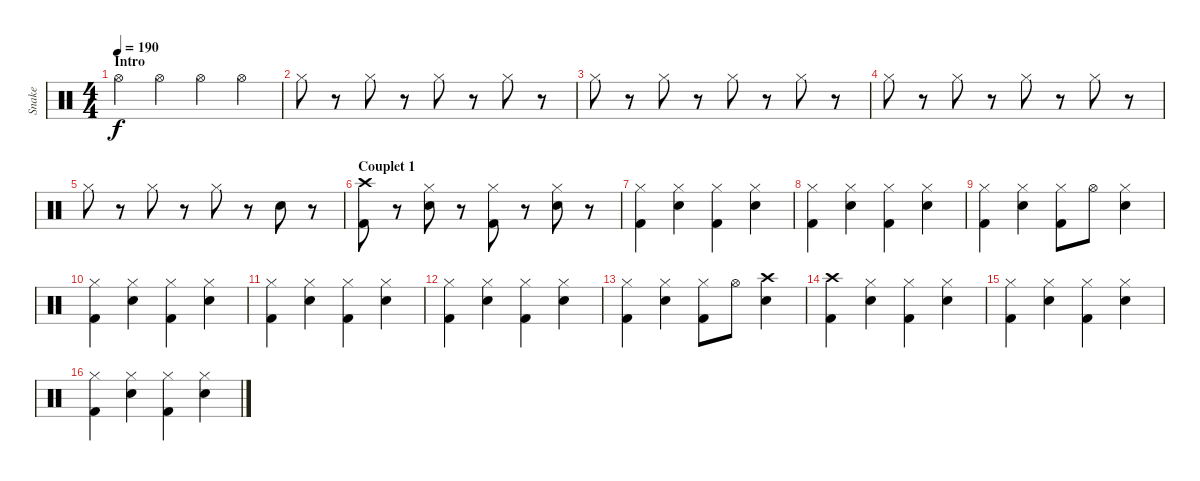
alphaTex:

\track ("Snake" "Snake") {instrument percussion}
\staff {score}
\articulation defaults
\ts (4 4)
\section ("" "Intro")
\tempo 190
\clef neutral
\ks c "Hi-Hat (open)".4{dy f} "Hi-Hat (open)".4 "Hi-Hat (open)".4 "Hi-Hat (open)".4
|
"Hi-Hat (closed)".8 r.8 "Hi-Hat (closed)".8 r.8 "Hi-Hat (closed)".8 r.8 "Hi-Hat (closed)".8 r.8 |
"Hi-Hat (closed)".8 r.8 "Hi-Hat (closed)".8 r.8 "Hi-Hat (closed)".8 r.8 "Hi-Hat (closed)".8 r.8 |
"Hi-Hat (closed)".8 r.8 "Hi-Hat (closed)".8 r.8 "Hi-Hat (closed)".8 r.8 "Hi-Hat (closed)".8 r.8 |
"Hi-Hat (closed)".8 r.8 "Hi-Hat (closed)".8 r.8 "Hi-Hat (closed)".8 r.8 "Snare (hit) 2".8 r.8 |
\section ("" "Couplet 1")
("Crash high (hit)" "Kick (hit) 2").8 r.8 ("Hi-Hat (closed)" "Snare (hit) 2").8 r.8 ("Hi-Hat (closed)" "Kick (hit) 2").8 r.8 ("Hi-Hat (closed)" "Snare (hit) 2").8 r.8 |
("Hi-Hat (closed)" "Kick (hit) 2").4 ("Hi-Hat (closed)" "Snare (hit) 2").4 ("Hi-Hat (closed)" "Kick (hit) 2").4 ("Hi-Hat (closed)" "Snare (hit) 2").4 |
("Hi-Hat (closed)" "Kick (hit) 2").4 ("Hi-Hat (closed)" "Snare (hit) 2").4 ("Hi-Hat (closed)" "Kick (hit) 2").4 ("Hi-Hat (closed)" "Snare (hit) 2").4 |
("Hi-Hat (closed)" "Kick (hit) 2").4 ("Hi-Hat (closed)" "Snare (hit) 2").4 ("Hi-Hat (closed)" "Kick (hit) 2").8 "Hi-Hat (open)".8 ("Hi-Hat (closed)" "Snare (hit) 2").4 |
("Hi-Hat (closed)" "Kick (hit) 2").4 ("Hi-Hat (closed)" "Snare (hit) 2").4 ("Hi-Hat (closed)" "Kick (hit) 2").4 ("Hi-Hat (closed)" "Snare (hit) 2").4 |
("Hi-Hat (closed)" "Kick (hit) 2").4 ("Hi-Hat (closed)" "Snare (hit) 2").4 ("Hi-Hat (closed)" "Kick (hit) 2").4 ("Hi-Hat (closed)" "Snare (hit) 2").4 |
("Hi-Hat (closed)" "Kick (hit) 2").4 ("Hi-Hat (closed)" "Snare (hit) 2").4 ("Hi-Hat (closed)" "Kick (hit) 2").4 ("Hi-Hat (closed)" "Snare (hit) 2").4 |
("Hi-Hat (closed)" "Kick (hit) 2").4 ("Hi-Hat (closed)" "Snare (hit) 2").4 ("Hi-Hat (closed)" "Kick (hit) 2").8 "Hi-Hat (open)".8 ("Crash high (hit)" "Snare (hit) 2").4 |
("Crash high (hit)" "Kick (hit) 2").4 ("Hi-Hat (closed)" "Snare (hit) 2").4 ("Hi-Hat (closed)" "Kick (hit) 2").4 ("Hi-Hat (closed)" "Snare (hit) 2").4 |
("Hi-Hat (closed)" "Kick (hit) 2").4 ("Hi-Hat (closed)" "Snare (hit) 2").4 ("Hi-Hat (closed)" "Kick (hit) 2").4 ("Hi-Hat (closed)" "Snare (hit) 2").4 |
("Hi-Hat (closed)" "Kick (hit) 2").4 ("Hi-Hat (closed)" "Snare (hit) 2").4 ("Hi-Hat (closed)" "Kick (hit) 2").4 ("Hi-Hat (closed)" "Snare (hit) 2").4
